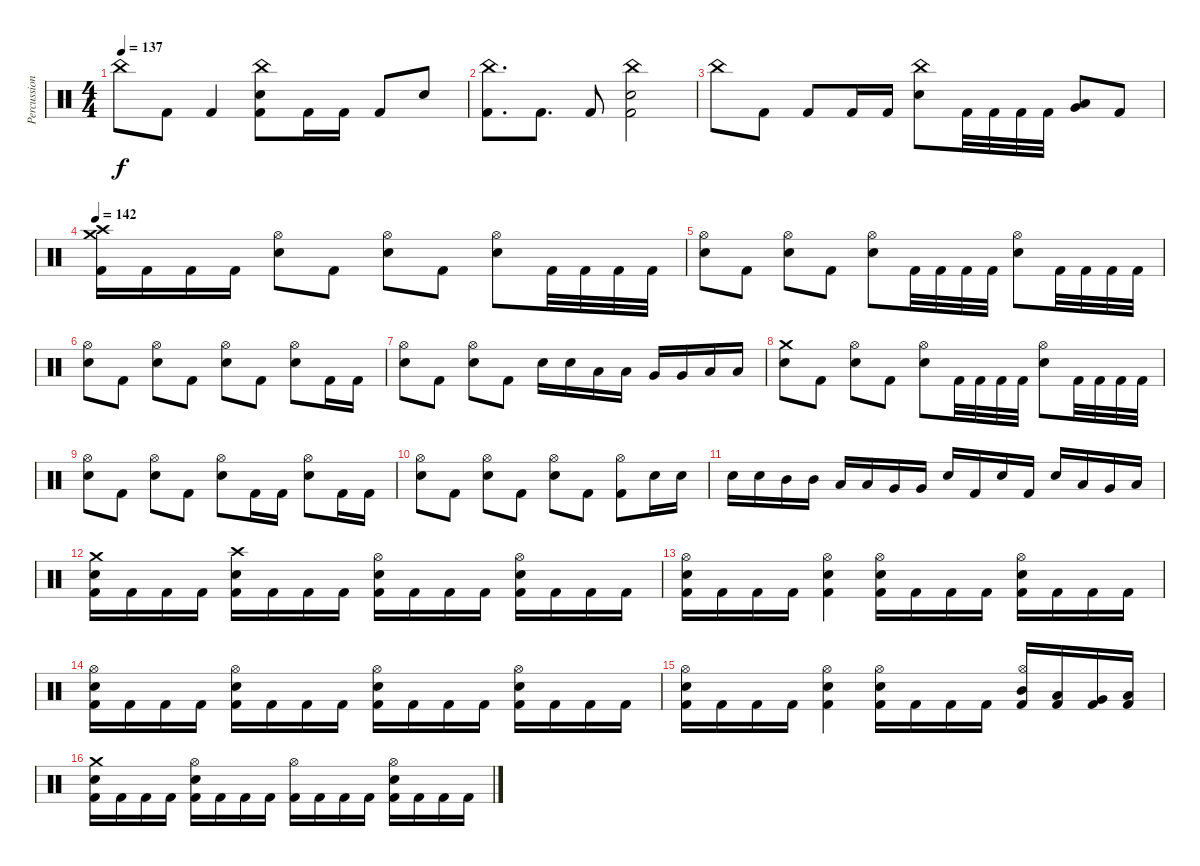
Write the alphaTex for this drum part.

\track ("Percussion" "Percussion") {instrument percussion}
\staff {score}
\articulation defaults
\ts (4 4)
\tempo 137
\clef neutral
\ks c "China (hit)".8{dy f} "Kick (hit) 2".8 "Kick (hit) 2".4
("China (hit)" "Electric Snare (hit)" "Kick (hit) 2").8 "Kick (hit) 2".16 "Kick (hit) 2".16 "Kick (hit) 2".8 "Electric Snare (hit)".8 |
("China (hit)" "Kick (hit) 2").8{d} "Kick (hit) 2".8{d} "Kick (hit) 2".8 ("China (hit)" "Electric Snare (hit)" "Kick (hit) 2").2 |
"China (hit)".8 "Kick (hit) 2".8 "Kick (hit) 2".8 "Kick (hit) 2".16 "Kick (hit) 2".16 ("China (hit)" "Electric Snare (hit)").8 "Kick (hit) 2".32 "Kick (hit) 2".32 "Kick (hit) 2".32 "Kick (hit) 2".32 ("Low Tom (hit)" "Very Low Tom (hit)").8 "Kick (hit) 2".8 |
\tempo 142
("Crash medium (hit)" "Crash high (hit)" "Kick (hit) 2").16 "Kick (hit) 2".16 "Kick (hit) 2".16 "Kick (hit) 2".16 ("Hi-Hat (open)" "Electric Snare (hit)").8 "Kick (hit) 2".8 ("Hi-Hat (open)" "Electric Snare (hit)").8 "Kick (hit) 2".8 ("Hi-Hat (open)" "Electric Snare (hit)").8 "Kick (hit) 2".32 "Kick (hit) 2".32 "Kick (hit) 2".32 "Kick (hit) 2".32 |
("Hi-Hat (open)" "Electric Snare (hit)").8 "Kick (hit) 2".8 ("Hi-Hat (open)" "Electric Snare (hit)").8 "Kick (hit) 2".8 ("Hi-Hat (open)" "Electric Snare (hit)").8 "Kick (hit) 2".32 "Kick (hit) 2".32 "Kick (hit) 2".32 "Kick (hit) 2".32 ("Hi-Hat (open)" "Electric Snare (hit)").8 "Kick (hit) 2".32 "Kick (hit) 2".32 "Kick (hit) 2".32 "Kick (hit) 2".32 |
("Hi-Hat (open)" "Electric Snare (hit)").8 "Kick (hit) 2".8 ("Hi-Hat (open)" "Electric Snare (hit)").8 "Kick (hit) 2".8 ("Hi-Hat (open)" "Electric Snare (hit)").8 "Kick (hit) 2".8 ("Hi-Hat (open)" "Electric Snare (hit)").8 "Kick (hit) 2".16 "Kick (hit) 2".16 |
("Hi-Hat (open)" "Electric Snare (hit)").8 "Kick (hit) 2".8 ("Hi-Hat (open)" "Electric Snare (hit)").8 "Kick (hit) 2".8 "Electric Snare (hit)".16 "Electric Snare (hit)".16 "Low Tom (hit)".16 "Low Tom (hit)".16 "Very Low Tom (hit)".16 "Very Low Tom (hit)".16 "Low Floor Tom (hit)".16 "Low Floor Tom (hit)".16 |
("Crash medium (hit)" "Electric Snare (hit)").8 "Kick (hit) 2".8 ("Hi-Hat (open)" "Electric Snare (hit)").8 "Kick (hit) 2".8 ("Hi-Hat (open)" "Electric Snare (hit)").8 "Kick (hit) 2".32 "Kick (hit) 2".32 "Kick (hit) 2".32 "Kick (hit) 2".32 ("Hi-Hat (open)" "Electric Snare (hit)").8 "Kick (hit) 2".32 "Kick (hit) 2".32 "Kick (hit) 2".32 "Kick (hit) 2".32 |
("Hi-Hat (open)" "Electric Snare (hit)").8 "Kick (hit) 2".8 ("Hi-Hat (open)" "Electric Snare (hit)").8 "Kick (hit) 2".8 ("Hi-Hat (open)" "Electric Snare (hit)").8 "Kick (hit) 2".16 "Kick (hit) 2".16 ("Hi-Hat (open)" "Electric Snare (hit)").8 "Kick (hit) 2".16 "Kick (hit) 2".16 |
("Hi-Hat (open)" "Electric Snare (hit)").8 "Kick (hit) 2".8 ("Hi-Hat (open)" "Electric Snare (hit)").8 "Kick (hit) 2".8 ("Hi-Hat (open)" "Electric Snare (hit)").8 "Kick (hit) 2".8 ("Hi-Hat (open)" "Kick (hit) 2").8 "Electric Snare (hit)".16 "Electric Snare (hit)".16 |
"Electric Snare (hit)".16 "Electric Snare (hit)".16 "Mid Tom (hit)".16 "Mid Tom (hit)".16 "Low Tom (hit)".16 "Low Tom (hit)".16 "Very Low Tom (hit)".16 "Very Low Tom (hit)".16 "Electric Snare (hit)".16 "Kick (hit) 2".16 "Electric Snare (hit)".16 "Kick (hit) 2".16 "Electric Snare (hit)".16 "Low Tom (hit)".16 "Very Low Tom (hit)".16 "Low Floor Tom (hit)".16 |
("Crash medium (hit)" "Electric Snare (hit)" "Kick (hit) 2").16 "Kick (hit) 2".16 "Kick (hit) 2".16 "Kick (hit) 2".16 ("Crash high (hit)" "Electric Snare (hit)" "Kick (hit) 2").16 "Kick (hit) 2".16 "Kick (hit) 2".16 "Kick (hit) 2".16 ("Hi-Hat (open)" "Electric Snare (hit)" "Kick (hit) 2").16 "Kick (hit) 2".16 "Kick (hit) 2".16 "Kick (hit) 2".16 ("Hi-Hat (open)" "Electric Snare (hit)" "Kick (hit) 2").16 "Kick (hit) 2".16 "Kick (hit) 2".16 "Kick (hit) 2".16 |
("Hi-Hat (open)" "Electric Snare (hit)" "Kick (hit) 2").16 "Kick (hit) 2".16 "Kick (hit) 2".16 "Kick (hit) 2".16 ("Hi-Hat (open)" "Electric Snare (hit)" "Kick (hit) 2").4 ("Hi-Hat (open)" "Electric Snare (hit)" "Kick (hit) 2").16 "Kick (hit) 2".16 "Kick (hit) 2".16 "Kick (hit) 2".16 ("Hi-Hat (open)" "Electric Snare (hit)" "Kick (hit) 2").16 "Kick (hit) 2".16 "Kick (hit) 2".16 "Kick (hit) 2".16 |
("Hi-Hat (open)" "Electric Snare (hit)" "Kick (hit) 2").16 "Kick (hit) 2".16 "Kick (hit) 2".16 "Kick (hit) 2".16 ("Hi-Hat (open)" "Electric Snare (hit)" "Kick (hit) 2").16 "Kick (hit) 2".16 "Kick (hit) 2".16 "Kick (hit) 2".16 ("Hi-Hat (open)" "Electric Snare (hit)" "Kick (hit) 2").16 "Kick (hit) 2".16 "Kick (hit) 2".16 "Kick (hit) 2".16 ("Hi-Hat (open)" "Electric Snare (hit)" "Kick (hit) 2").16 "Kick (hit) 2".16 "Kick (hit) 2".16 "Kick (hit) 2".16 |
("Hi-Hat (open)" "Electric Snare (hit)" "Kick (hit) 2").16 "Kick (hit) 2".16 "Kick (hit) 2".16 "Kick (hit) 2".16 ("Hi-Hat (open)" "Electric Snare (hit)" "Kick (hit) 2").4 ("Hi-Hat (open)" "Electric Snare (hit)" "Kick (hit) 2").16 "Kick (hit) 2".16 "Kick (hit) 2".16 "Kick (hit) 2".16 ("Hi-Hat (open)" "Mid Tom (hit)" "Kick (hit) 2").16 ("Low Tom (hit)" "Kick (hit) 2").16 ("Very Low Tom (hit)" "Kick (hit) 2").16 ("Low Floor Tom (hit)" "Kick (hit) 2").16 |
("Crash medium (hit)" "Electric Snare (hit)" "Kick (hit) 2").16 "Kick (hit) 2".16 "Kick (hit) 2".16 "Kick (hit) 2".16 ("Hi-Hat (open)" "Electric Snare (hit)" "Kick (hit) 2").16 "Kick (hit) 2".16 "Kick (hit) 2".16 "Kick (hit) 2".16 ("Hi-Hat (open)" "Kick (hit) 2").16 "Kick (hit) 2".16 "Kick (hit) 2".16 "Kick (hit) 2".16 ("Hi-Hat (open)" "Electric Snare (hit)" "Kick (hit) 2").16 "Kick (hit) 2".16 "Kick (hit) 2".16 "Kick (hit) 2".16
